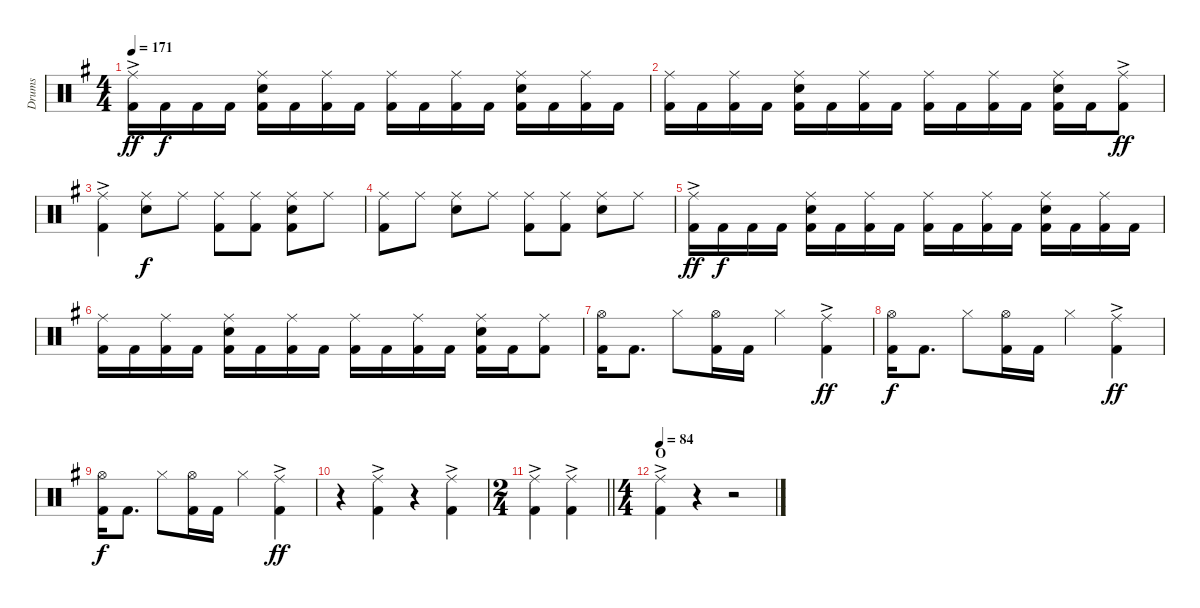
\track ("Drums" "Drums") {instrument percussion}
\staff {score}
\articulation defaults
\ts (4 4)
\tempo 171
\clef neutral
\ks g
("Ride (middle)"{ac} "Kick (hit) 2").16{dy ff} "Kick (hit) 2".16{dy f} "Kick (hit) 2".16 "Kick (hit) 2".16 ("Ride (middle)" "Snare (hit) 2" "Kick (hit) 2").16 "Kick (hit) 2".16 ("Ride (middle)" "Kick (hit) 2").16 "Kick (hit) 2".16 ("Ride (middle)" "Kick (hit) 2").16 "Kick (hit) 2".16 ("Ride (middle)" "Kick (hit) 2").16 "Kick (hit) 2".16 ("Ride (middle)" "Snare (hit) 2" "Kick (hit) 2").16 "Kick (hit) 2".16 ("Ride (middle)" "Kick (hit) 2").16 "Kick (hit) 2".16 |
("Ride (middle)" "Kick (hit) 2").16 "Kick (hit) 2".16 ("Ride (middle)" "Kick (hit) 2").16 "Kick (hit) 2".16 ("Ride (middle)" "Snare (hit) 2" "Kick (hit) 2").16 "Kick (hit) 2".16 ("Ride (middle)" "Kick (hit) 2").16 "Kick (hit) 2".16 ("Ride (middle)" "Kick (hit) 2").16 "Kick (hit) 2".16 ("Ride (middle)" "Kick (hit) 2").16 "Kick (hit) 2".16 ("Ride (middle)" "Snare (hit) 2" "Kick (hit) 2").16 "Kick (hit) 2".16 ("Ride (middle)"{ac} "Kick (hit) 2").8{dy ff} |
("Ride (middle)"{ac} "Kick (hit) 2").4 ("Ride (middle)" "Snare (hit) 2").8{dy f} "Ride (middle)".8 ("Ride (middle)" "Kick (hit) 2").8 ("Ride (middle)" "Kick (hit) 2").8 ("Ride (middle)" "Snare (hit) 2" "Kick (hit) 2").8 "Ride (middle)".8 |
("Ride (middle)" "Kick (hit) 2").8 "Ride (middle)".8 ("Ride (middle)" "Snare (hit) 2").8 "Ride (middle)".8 ("Ride (middle)" "Kick (hit) 2").8 ("Ride (middle)" "Kick (hit) 2").8 ("Ride (middle)" "Snare (hit) 2").8 "Ride (middle)".8 |
("Ride (middle)"{ac} "Kick (hit) 2").16{dy ff} "Kick (hit) 2".16{dy f} "Kick (hit) 2".16 "Kick (hit) 2".16 ("Ride (middle)" "Snare (hit) 2" "Kick (hit) 2").16 "Kick (hit) 2".16 ("Ride (middle)" "Kick (hit) 2").16 "Kick (hit) 2".16 ("Ride (middle)" "Kick (hit) 2").16 "Kick (hit) 2".16 ("Ride (middle)" "Kick (hit) 2").16 "Kick (hit) 2".16 ("Ride (middle)" "Snare (hit) 2" "Kick (hit) 2").16 "Kick (hit) 2".16 ("Ride (middle)" "Kick (hit) 2").16 "Kick (hit) 2".16 |
("Ride (middle)" "Kick (hit) 2").16 "Kick (hit) 2".16 ("Ride (middle)" "Kick (hit) 2").16 "Kick (hit) 2".16 ("Ride (middle)" "Snare (hit) 2" "Kick (hit) 2").16 "Kick (hit) 2".16 ("Ride (middle)" "Kick (hit) 2").16 "Kick (hit) 2".16 ("Ride (middle)" "Kick (hit) 2").16 "Kick (hit) 2".16 ("Ride (middle)" "Kick (hit) 2").16 "Kick (hit) 2".16 ("Ride (middle)" "Snare (hit) 2" "Kick (hit) 2").16 "Kick (hit) 2".16 ("Ride (middle)" "Kick (hit) 2").8 |
("Hi-Hat (open)" "Kick (hit) 2").16 "Kick (hit) 2".8{d} "Hi-Hat (closed)".8 ("Hi-Hat (open)" "Kick (hit) 2").16 "Kick (hit) 2".16 "Hi-Hat (closed)".4 ("Ride (middle)"{ac} "Kick (hit) 2").4{dy ff} |
("Hi-Hat (open)" "Kick (hit) 2").16{dy f} "Kick (hit) 2".8{d} "Hi-Hat (closed)".8 ("Hi-Hat (open)" "Kick (hit) 2").16 "Kick (hit) 2".16 "Hi-Hat (closed)".4 ("Ride (middle)"{ac} "Kick (hit) 2").4{dy ff} |
("Hi-Hat (open)" "Kick (hit) 2").16{dy f} "Kick (hit) 2".8{d} "Hi-Hat (closed)".8 ("Hi-Hat (open)" "Kick (hit) 2").16 "Kick (hit) 2".16 "Hi-Hat (closed)".4 ("Ride (middle)"{ac} "Kick (hit) 2").4{dy ff} |
r.4 ("Ride (middle)"{ac} "Kick (hit) 2").4 r.4 ("Ride (middle)"{ac} "Kick (hit) 2").4 |
\ts (2 4)
\barLineRight lightlight
("Ride (middle)"{ac} "Kick (hit) 2").4 ("Ride (middle)"{ac} "Kick (hit) 2").4 |
\ts (4 4)
\section ("" "O")
\tempo 84
("Ride (middle)"{ac} "Kick (hit) 2").4 r.4 r.2
